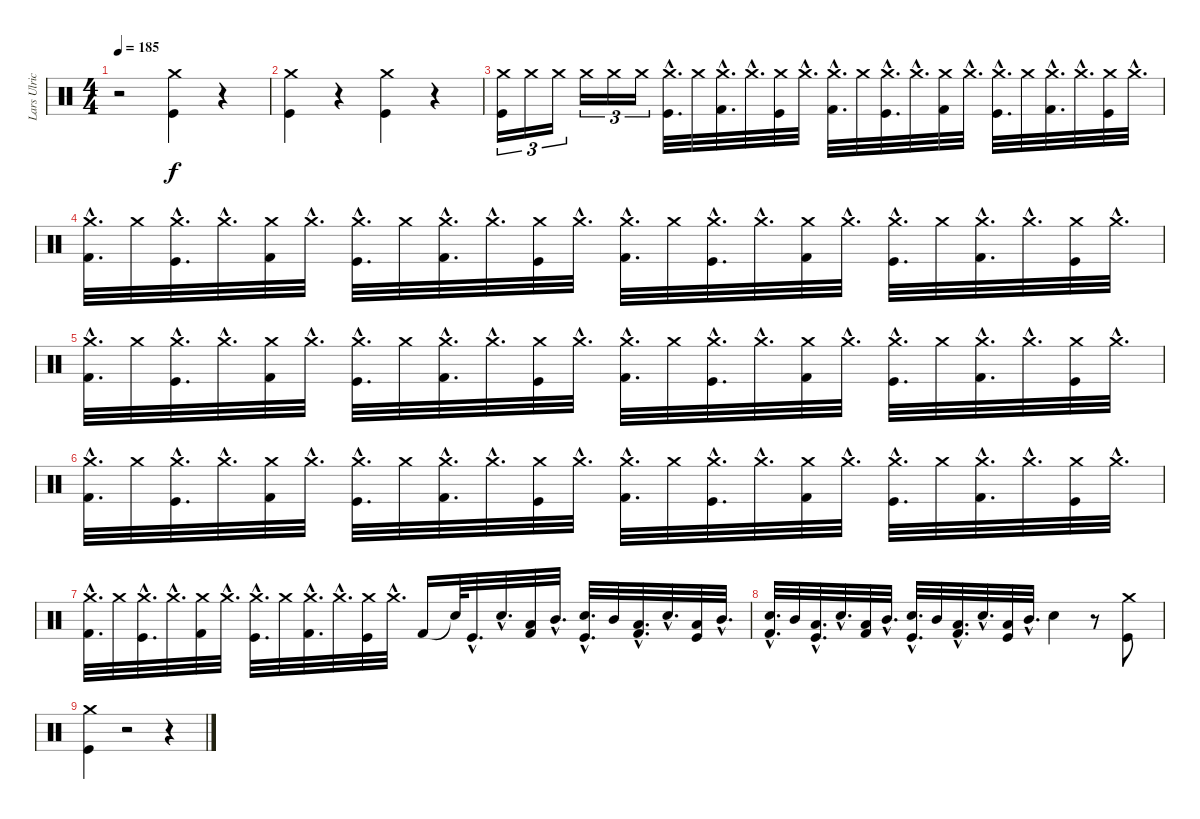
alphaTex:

\track ("Lars Ulrich (Drums)" "Lars Ulric") {instrument percussion}
\staff {score}
\articulation defaults
\ts (4 4)
\tempo 185
\clef neutral
\ks c
r.2{dy f} ("Kick (hit)" "Crash medium (hit)").4 r.4 |
("Crash medium (hit)" "Kick (hit)").4 r.4 ("Kick (hit)" "Crash medium (hit)").4 r.4 |
("Kick (hit)" "Crash medium (hit)").16{tu (3 2)} "Crash medium (hit)".16{tu (3 2)} "Crash medium (hit)".16{tu (3 2)} "Crash medium (hit)".16{tu (3 2)} "Crash medium (hit)".16{tu (3 2)} "Crash medium (hit)".16{tu (3 2)} ("Kick (hit)"{hac} "Crash medium (hit)"{hac}).32{d} "Crash medium (hit)".32 ("Kick (hit) 2"{hac} "Crash medium (hit)"{hac}).32{d} "Crash medium (hit)"{hac}.32{d} ("Kick (hit)" "Crash medium (hit)").32 "Crash medium (hit)"{hac}.32{d} ("Kick (hit) 2"{hac} "Crash medium (hit)"{hac}).32{d} "Crash medium (hit)".32 ("Kick (hit)"{hac} "Crash medium (hit)"{hac}).32{d} "Crash medium (hit)"{hac}.32{d} ("Kick (hit) 2" "Crash medium (hit)").32 "Crash medium (hit)"{hac}.32{d} ("Kick (hit)"{hac} "Crash medium (hit)"{hac}).32{d} "Crash medium (hit)".32 ("Kick (hit) 2"{hac} "Crash medium (hit)"{hac}).32{d} "Crash medium (hit)"{hac}.32{d} ("Kick (hit)" "Crash medium (hit)").32 "Crash medium (hit)"{hac}.32{d} |
("Kick (hit) 2"{hac} "Crash medium (hit)"{hac}).32{d} "Crash medium (hit)".32 ("Kick (hit)"{hac} "Crash medium (hit)"{hac}).32{d} "Crash medium (hit)"{hac}.32{d} ("Kick (hit) 2" "Crash medium (hit)").32 "Crash medium (hit)"{hac}.32{d} ("Kick (hit)"{hac} "Crash medium (hit)"{hac}).32{d} "Crash medium (hit)".32 ("Kick (hit) 2"{hac} "Crash medium (hit)"{hac}).32{d} "Crash medium (hit)"{hac}.32{d} ("Kick (hit)" "Crash medium (hit)").32 "Crash medium (hit)"{hac}.32{d} ("Kick (hit) 2"{hac} "Crash medium (hit)"{hac}).32{d} "Crash medium (hit)".32 ("Kick (hit)"{hac} "Crash medium (hit)"{hac}).32{d} "Crash medium (hit)"{hac}.32{d} ("Kick (hit) 2" "Crash medium (hit)").32 "Crash medium (hit)"{hac}.32{d} ("Kick (hit)"{hac} "Crash medium (hit)"{hac}).32{d} "Crash medium (hit)".32 ("Kick (hit) 2"{hac} "Crash medium (hit)"{hac}).32{d} "Crash medium (hit)"{hac}.32{d} ("Kick (hit)" "Crash medium (hit)").32 "Crash medium (hit)"{hac}.32{d} |
("Kick (hit) 2"{hac} "Crash medium (hit)"{hac}).32{d} "Crash medium (hit)".32 ("Kick (hit)"{hac} "Crash medium (hit)"{hac}).32{d} "Crash medium (hit)"{hac}.32{d} ("Kick (hit) 2" "Crash medium (hit)").32 "Crash medium (hit)"{hac}.32{d} ("Kick (hit)"{hac} "Crash medium (hit)"{hac}).32{d} "Crash medium (hit)".32 ("Kick (hit) 2"{hac} "Crash medium (hit)"{hac}).32{d} "Crash medium (hit)"{hac}.32{d} ("Kick (hit)" "Crash medium (hit)").32 "Crash medium (hit)"{hac}.32{d} ("Kick (hit) 2"{hac} "Crash medium (hit)"{hac}).32{d} "Crash medium (hit)".32 ("Kick (hit)"{hac} "Crash medium (hit)"{hac}).32{d} "Crash medium (hit)"{hac}.32{d} ("Kick (hit) 2" "Crash medium (hit)").32 "Crash medium (hit)"{hac}.32{d} ("Kick (hit)"{hac} "Crash medium (hit)"{hac}).32{d} "Crash medium (hit)".32 ("Kick (hit) 2"{hac} "Crash medium (hit)"{hac}).32{d} "Crash medium (hit)"{hac}.32{d} ("Kick (hit)" "Crash medium (hit)").32 "Crash medium (hit)"{hac}.32{d} |
("Kick (hit) 2"{hac} "Crash medium (hit)"{hac}).32{d} "Crash medium (hit)".32 ("Kick (hit)"{hac} "Crash medium (hit)"{hac}).32{d} "Crash medium (hit)"{hac}.32{d} ("Kick (hit) 2" "Crash medium (hit)").32 "Crash medium (hit)"{hac}.32{d} ("Kick (hit)"{hac} "Crash medium (hit)"{hac}).32{d} "Crash medium (hit)".32 ("Kick (hit) 2"{hac} "Crash medium (hit)"{hac}).32{d} "Crash medium (hit)"{hac}.32{d} ("Kick (hit)" "Crash medium (hit)").32 "Crash medium (hit)"{hac}.32{d} ("Kick (hit) 2"{hac} "Crash medium (hit)"{hac}).32{d} "Crash medium (hit)".32 ("Kick (hit)"{hac} "Crash medium (hit)"{hac}).32{d} "Crash medium (hit)"{hac}.32{d} ("Kick (hit) 2" "Crash medium (hit)").32 "Crash medium (hit)"{hac}.32{d} ("Kick (hit)"{hac} "Crash medium (hit)"{hac}).32{d} "Crash medium (hit)".32 ("Kick (hit) 2"{hac} "Crash medium (hit)"{hac}).32{d} "Crash medium (hit)"{hac}.32{d} ("Kick (hit)" "Crash medium (hit)").32 "Crash medium (hit)"{hac}.32{d} |
("Kick (hit) 2"{hac} "Crash medium (hit)"{hac}).32{d} "Crash medium (hit)".32 ("Kick (hit)"{hac} "Crash medium (hit)"{hac}).32{d} "Crash medium (hit)"{hac}.32{d} ("Kick (hit) 2" "Crash medium (hit)").32 "Crash medium (hit)"{hac}.32{d} ("Kick (hit)"{hac} "Crash medium (hit)"{hac}).32{d} "Crash medium (hit)".32 ("Kick (hit) 2"{hac} "Crash medium (hit)"{hac}).32{d} "Crash medium (hit)"{hac}.32{d} ("Kick (hit)" "Crash medium (hit)").32 "Crash medium (hit)"{hac}.32{d} "Kick (hit) 2".16 "Snare (hit)"{t}.64 "Kick (hit)"{hac}.32{d} "Snare (hit) 2"{hac}.32{d} ("Low Tom (hit)" "Kick (hit) 2").32 "Mid Tom (hit)"{hac}.32{d} ("Snare (hit) 2"{hac} "Kick (hit)"{hac}).32{d} "Mid Tom (hit)".32 ("Low Tom (hit)"{hac} "Kick (hit) 2"{hac}).32{d} "Snare (hit) 2"{hac}.32{d} ("Low Tom (hit)" "Kick (hit)").32 "Mid Tom (hit)"{hac}.32{d} |
("Snare (hit) 2"{hac} "Kick (hit) 2"{hac}).32{d} "Mid Tom (hit)".32 ("Low Tom (hit)"{hac} "Kick (hit)"{hac}).32{d} "Snare (hit) 2"{hac}.32{d} ("Low Tom (hit)" "Kick (hit) 2").32 "Mid Tom (hit)"{hac}.32{d} ("Snare (hit) 2"{hac} "Kick (hit)"{hac}).32{d} "Mid Tom (hit)".32 ("Low Tom (hit)"{hac} "Kick (hit) 2"{hac}).32{d} "Snare (hit) 2"{hac}.32{d} ("Low Tom (hit)" "Kick (hit)").32 "Mid Tom (hit)"{hac}.32{d} "Snare (hit) 2".4 r.8 ("Kick (hit)" "Crash medium (hit)").8 |
("Kick (hit)" "Crash medium (hit)").4 r.2 r.4
